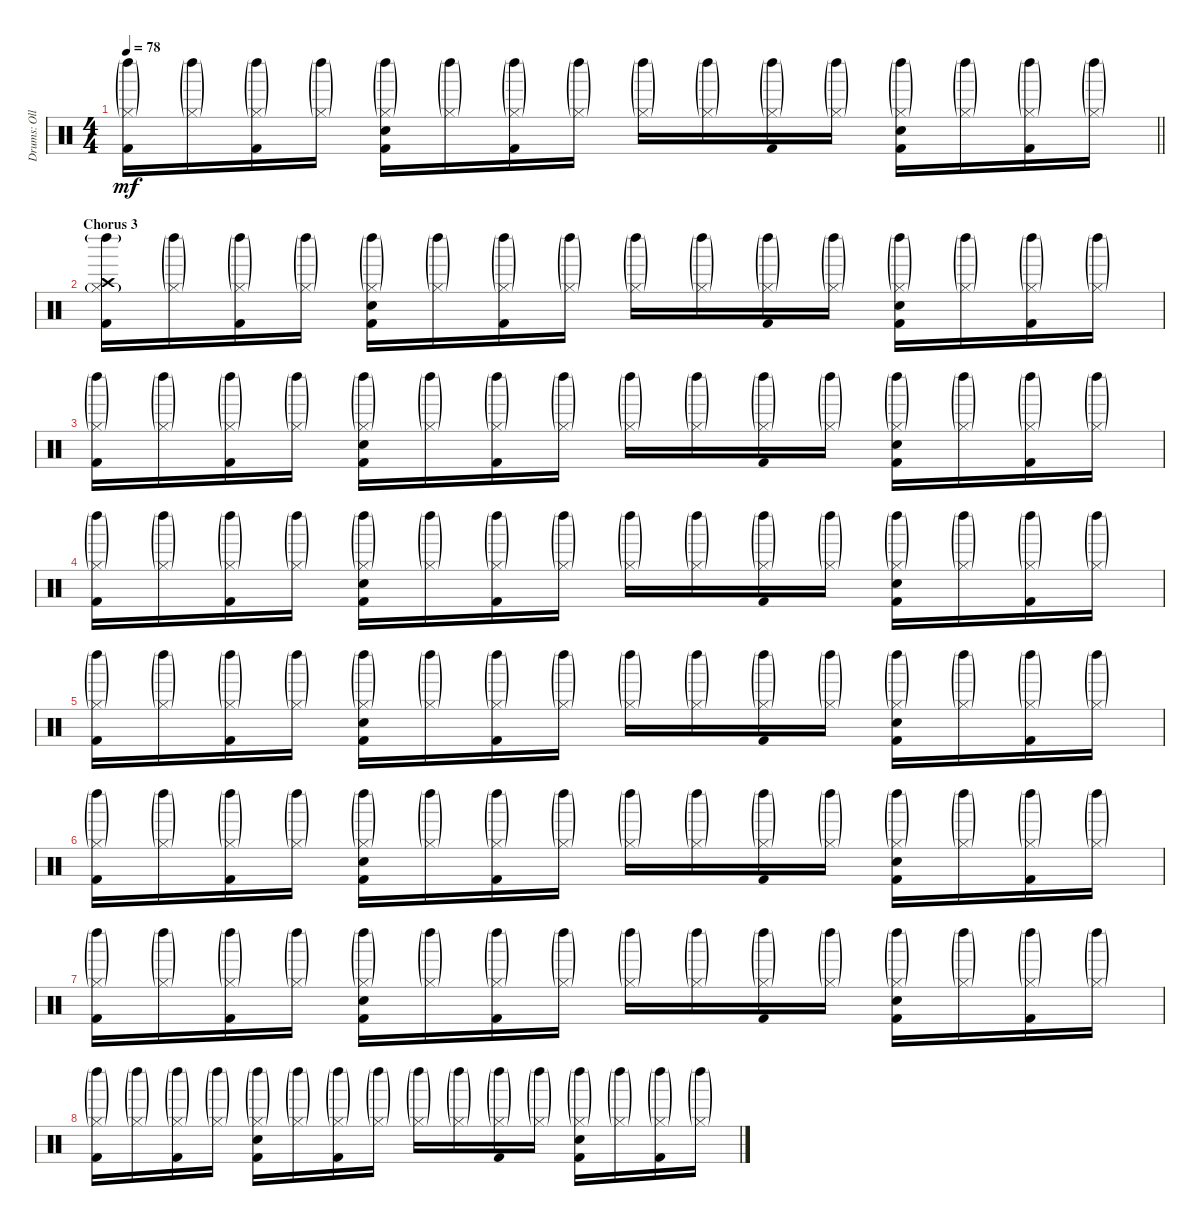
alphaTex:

\track ("Drums: Olle Romeo" "Drums: Oll") {instrument percussion}
\staff {score}
\articulation defaults
\ts (4 4)
\tempo 78
\clef neutral
\barLineRight lightlight
\ks c
("Hi-Hat (closed)"{g} "Kick (hit) 2" "Left Maraca (hit)"{g}).16{dy mf} ("Hi-Hat (closed)"{g} "Left Maraca (hit)"{g}).16 ("Hi-Hat (closed)"{g} "Kick (hit) 2" "Left Maraca (hit)"{g}).16 ("Hi-Hat (closed)"{g} "Left Maraca (hit)"{g}).16 ("Hi-Hat (closed)"{g} "Snare (hit) 2" "Kick (hit) 2" "Left Maraca (hit)"{g}).16 ("Hi-Hat (closed)"{g} "Left Maraca (hit)"{g}).16 ("Hi-Hat (closed)"{g} "Kick (hit) 2" "Left Maraca (hit)"{g}).16 ("Hi-Hat (closed)"{g} "Left Maraca (hit)"{g}).16 ("Hi-Hat (closed)"{g} "Left Maraca (hit)"{g}).16 ("Hi-Hat (closed)"{g} "Left Maraca (hit)"{g}).16 ("Hi-Hat (closed)"{g} "Kick (hit) 2" "Left Maraca (hit)"{g}).16 ("Hi-Hat (closed)"{g} "Left Maraca (hit)"{g}).16 ("Hi-Hat (closed)"{g} "Snare (hit) 2" "Kick (hit) 2" "Left Maraca (hit)"{g}).16 ("Hi-Hat (closed)"{g} "Left Maraca (hit)"{g}).16 ("Hi-Hat (closed)"{g} "Kick (hit) 2" "Left Maraca (hit)"{g}).16 ("Hi-Hat (closed)"{g} "Left Maraca (hit)"{g}).16 |
\section ("" "Chorus 3")
("Crash high (hit)" "Hi-Hat (closed)"{g} "Kick (hit) 2" "Left Maraca (hit)"{g}).16 ("Hi-Hat (closed)"{g} "Left Maraca (hit)"{g}).16 ("Hi-Hat (closed)"{g} "Kick (hit) 2" "Left Maraca (hit)"{g}).16 ("Hi-Hat (closed)"{g} "Left Maraca (hit)"{g}).16 ("Hi-Hat (closed)"{g} "Snare (hit) 2" "Kick (hit) 2" "Left Maraca (hit)"{g}).16 ("Hi-Hat (closed)"{g} "Left Maraca (hit)"{g}).16 ("Hi-Hat (closed)"{g} "Kick (hit) 2" "Left Maraca (hit)"{g}).16 ("Hi-Hat (closed)"{g} "Left Maraca (hit)"{g}).16 ("Hi-Hat (closed)"{g} "Left Maraca (hit)"{g}).16 ("Hi-Hat (closed)"{g} "Left Maraca (hit)"{g}).16 ("Hi-Hat (closed)"{g} "Kick (hit) 2" "Left Maraca (hit)"{g}).16 ("Hi-Hat (closed)"{g} "Left Maraca (hit)"{g}).16 ("Hi-Hat (closed)"{g} "Snare (hit) 2" "Kick (hit) 2" "Left Maraca (hit)"{g}).16 ("Hi-Hat (closed)"{g} "Left Maraca (hit)"{g}).16 ("Hi-Hat (closed)"{g} "Kick (hit) 2" "Left Maraca (hit)"{g}).16 ("Hi-Hat (closed)"{g} "Left Maraca (hit)"{g}).16 |
("Hi-Hat (closed)"{g} "Kick (hit) 2" "Left Maraca (hit)"{g}).16 ("Hi-Hat (closed)"{g} "Left Maraca (hit)"{g}).16 ("Hi-Hat (closed)"{g} "Kick (hit) 2" "Left Maraca (hit)"{g}).16 ("Hi-Hat (closed)"{g} "Left Maraca (hit)"{g}).16 ("Hi-Hat (closed)"{g} "Snare (hit) 2" "Kick (hit) 2" "Left Maraca (hit)"{g}).16 ("Hi-Hat (closed)"{g} "Left Maraca (hit)"{g}).16 ("Hi-Hat (closed)"{g} "Kick (hit) 2" "Left Maraca (hit)"{g}).16 ("Hi-Hat (closed)"{g} "Left Maraca (hit)"{g}).16 ("Hi-Hat (closed)"{g} "Left Maraca (hit)"{g}).16 ("Hi-Hat (closed)"{g} "Left Maraca (hit)"{g}).16 ("Hi-Hat (closed)"{g} "Kick (hit) 2" "Left Maraca (hit)"{g}).16 ("Hi-Hat (closed)"{g} "Left Maraca (hit)"{g}).16 ("Hi-Hat (closed)"{g} "Snare (hit) 2" "Kick (hit) 2" "Left Maraca (hit)"{g}).16 ("Hi-Hat (closed)"{g} "Left Maraca (hit)"{g}).16 ("Hi-Hat (closed)"{g} "Kick (hit) 2" "Left Maraca (hit)"{g}).16 ("Hi-Hat (closed)"{g} "Left Maraca (hit)"{g}).16 |
("Hi-Hat (closed)"{g} "Kick (hit) 2" "Left Maraca (hit)"{g}).16 ("Hi-Hat (closed)"{g} "Left Maraca (hit)"{g}).16 ("Hi-Hat (closed)"{g} "Kick (hit) 2" "Left Maraca (hit)"{g}).16 ("Hi-Hat (closed)"{g} "Left Maraca (hit)"{g}).16 ("Hi-Hat (closed)"{g} "Snare (hit) 2" "Kick (hit) 2" "Left Maraca (hit)"{g}).16 ("Hi-Hat (closed)"{g} "Left Maraca (hit)"{g}).16 ("Hi-Hat (closed)"{g} "Kick (hit) 2" "Left Maraca (hit)"{g}).16 ("Hi-Hat (closed)"{g} "Left Maraca (hit)"{g}).16 ("Hi-Hat (closed)"{g} "Left Maraca (hit)"{g}).16 ("Hi-Hat (closed)"{g} "Left Maraca (hit)"{g}).16 ("Hi-Hat (closed)"{g} "Kick (hit) 2" "Left Maraca (hit)"{g}).16 ("Hi-Hat (closed)"{g} "Left Maraca (hit)"{g}).16 ("Hi-Hat (closed)"{g} "Snare (hit) 2" "Kick (hit) 2" "Left Maraca (hit)"{g}).16 ("Hi-Hat (closed)"{g} "Left Maraca (hit)"{g}).16 ("Hi-Hat (closed)"{g} "Kick (hit) 2" "Left Maraca (hit)"{g}).16 ("Hi-Hat (closed)"{g} "Left Maraca (hit)"{g}).16 |
("Hi-Hat (closed)"{g} "Kick (hit) 2" "Left Maraca (hit)"{g}).16 ("Hi-Hat (closed)"{g} "Left Maraca (hit)"{g}).16 ("Hi-Hat (closed)"{g} "Kick (hit) 2" "Left Maraca (hit)"{g}).16 ("Hi-Hat (closed)"{g} "Left Maraca (hit)"{g}).16 ("Hi-Hat (closed)"{g} "Snare (hit) 2" "Kick (hit) 2" "Left Maraca (hit)"{g}).16 ("Hi-Hat (closed)"{g} "Left Maraca (hit)"{g}).16 ("Hi-Hat (closed)"{g} "Kick (hit) 2" "Left Maraca (hit)"{g}).16 ("Hi-Hat (closed)"{g} "Left Maraca (hit)"{g}).16 ("Hi-Hat (closed)"{g} "Left Maraca (hit)"{g}).16 ("Hi-Hat (closed)"{g} "Left Maraca (hit)"{g}).16 ("Hi-Hat (closed)"{g} "Kick (hit) 2" "Left Maraca (hit)"{g}).16 ("Hi-Hat (closed)"{g} "Left Maraca (hit)"{g}).16 ("Hi-Hat (closed)"{g} "Snare (hit) 2" "Kick (hit) 2" "Left Maraca (hit)"{g}).16 ("Hi-Hat (closed)"{g} "Left Maraca (hit)"{g}).16 ("Hi-Hat (closed)"{g} "Kick (hit) 2" "Left Maraca (hit)"{g}).16 ("Hi-Hat (closed)"{g} "Left Maraca (hit)"{g}).16 |
("Hi-Hat (closed)"{g} "Kick (hit) 2" "Left Maraca (hit)"{g}).16 ("Hi-Hat (closed)"{g} "Left Maraca (hit)"{g}).16 ("Hi-Hat (closed)"{g} "Kick (hit) 2" "Left Maraca (hit)"{g}).16 ("Hi-Hat (closed)"{g} "Left Maraca (hit)"{g}).16 ("Hi-Hat (closed)"{g} "Snare (hit) 2" "Kick (hit) 2" "Left Maraca (hit)"{g}).16 ("Hi-Hat (closed)"{g} "Left Maraca (hit)"{g}).16 ("Hi-Hat (closed)"{g} "Kick (hit) 2" "Left Maraca (hit)"{g}).16 ("Hi-Hat (closed)"{g} "Left Maraca (hit)"{g}).16 ("Hi-Hat (closed)"{g} "Left Maraca (hit)"{g}).16 ("Hi-Hat (closed)"{g} "Left Maraca (hit)"{g}).16 ("Hi-Hat (closed)"{g} "Kick (hit) 2" "Left Maraca (hit)"{g}).16 ("Hi-Hat (closed)"{g} "Left Maraca (hit)"{g}).16 ("Hi-Hat (closed)"{g} "Snare (hit) 2" "Kick (hit) 2" "Left Maraca (hit)"{g}).16 ("Hi-Hat (closed)"{g} "Left Maraca (hit)"{g}).16 ("Hi-Hat (closed)"{g} "Kick (hit) 2" "Left Maraca (hit)"{g}).16 ("Hi-Hat (closed)"{g} "Left Maraca (hit)"{g}).16 |
("Hi-Hat (closed)"{g} "Kick (hit) 2" "Left Maraca (hit)"{g}).16 ("Hi-Hat (closed)"{g} "Left Maraca (hit)"{g}).16 ("Hi-Hat (closed)"{g} "Kick (hit) 2" "Left Maraca (hit)"{g}).16 ("Hi-Hat (closed)"{g} "Left Maraca (hit)"{g}).16 ("Hi-Hat (closed)"{g} "Snare (hit) 2" "Kick (hit) 2" "Left Maraca (hit)"{g}).16 ("Hi-Hat (closed)"{g} "Left Maraca (hit)"{g}).16 ("Hi-Hat (closed)"{g} "Kick (hit) 2" "Left Maraca (hit)"{g}).16 ("Hi-Hat (closed)"{g} "Left Maraca (hit)"{g}).16 ("Hi-Hat (closed)"{g} "Left Maraca (hit)"{g}).16 ("Hi-Hat (closed)"{g} "Left Maraca (hit)"{g}).16 ("Hi-Hat (closed)"{g} "Kick (hit) 2" "Left Maraca (hit)"{g}).16 ("Hi-Hat (closed)"{g} "Left Maraca (hit)"{g}).16 ("Hi-Hat (closed)"{g} "Snare (hit) 2" "Kick (hit) 2" "Left Maraca (hit)"{g}).16 ("Hi-Hat (closed)"{g} "Left Maraca (hit)"{g}).16 ("Hi-Hat (closed)"{g} "Kick (hit) 2" "Left Maraca (hit)"{g}).16 ("Hi-Hat (closed)"{g} "Left Maraca (hit)"{g}).16 |
("Hi-Hat (closed)"{g} "Kick (hit) 2" "Left Maraca (hit)"{g}).16 ("Hi-Hat (closed)"{g} "Left Maraca (hit)"{g}).16 ("Hi-Hat (closed)"{g} "Kick (hit) 2" "Left Maraca (hit)"{g}).16 ("Hi-Hat (closed)"{g} "Left Maraca (hit)"{g}).16 ("Hi-Hat (closed)"{g} "Snare (hit) 2" "Kick (hit) 2" "Left Maraca (hit)"{g}).16 ("Hi-Hat (closed)"{g} "Left Maraca (hit)"{g}).16 ("Hi-Hat (closed)"{g} "Kick (hit) 2" "Left Maraca (hit)"{g}).16 ("Hi-Hat (closed)"{g} "Left Maraca (hit)"{g}).16 ("Hi-Hat (closed)"{g} "Left Maraca (hit)"{g}).16 ("Hi-Hat (closed)"{g} "Left Maraca (hit)"{g}).16 ("Hi-Hat (closed)"{g} "Kick (hit) 2" "Left Maraca (hit)"{g}).16 ("Hi-Hat (closed)"{g} "Left Maraca (hit)"{g}).16 ("Hi-Hat (closed)"{g} "Snare (hit) 2" "Kick (hit) 2" "Left Maraca (hit)"{g}).16 ("Hi-Hat (closed)"{g} "Left Maraca (hit)"{g}).16 ("Hi-Hat (closed)"{g} "Kick (hit) 2" "Left Maraca (hit)"{g}).16 ("Hi-Hat (closed)"{g} "Left Maraca (hit)"{g}).16
